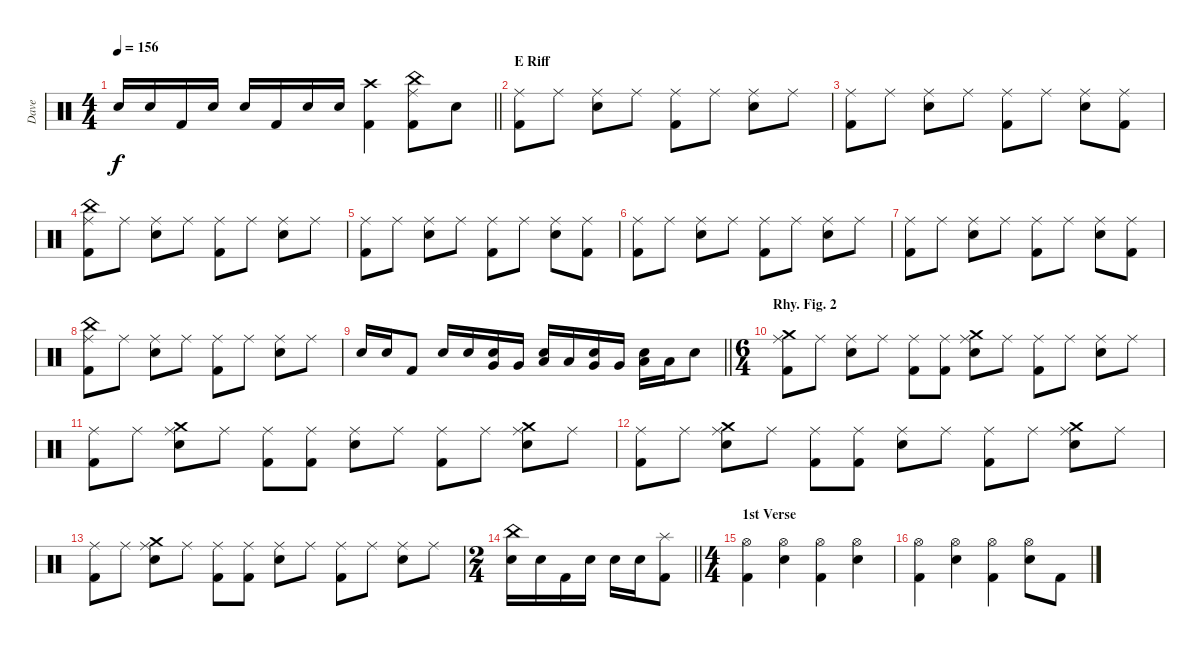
\track ("Dave" "Dave") {instrument percussion}
\staff {score}
\articulation defaults
\ts (4 4)
\tempo 156
\clef neutral
\barLineRight lightlight
\ks c "Electric Snare (hit)".16{dy f} "Electric Snare (hit)".16 "Kick (hit) 2".16 "Electric Snare (hit)".16 "Electric Snare (hit)".16 "Kick (hit) 2".16 "Electric Snare (hit)".16 "Electric Snare (hit)".16
("Crash high (hit)" "Kick (hit) 2").4 ("Ride (middle)" "China (hit)" "Kick (hit) 2").8 "Electric Snare (hit)".8 |
\section ("" "E Riff")
("Ride (middle)" "Kick (hit) 2").8 "Ride (middle)".8 ("Ride (middle)" "Electric Snare (hit)").8 "Ride (middle)".8 ("Ride (middle)" "Kick (hit) 2").8 "Ride (middle)".8 ("Ride (middle)" "Electric Snare (hit)").8 "Ride (middle)".8 |
("Ride (middle)" "Kick (hit) 2").8 "Ride (middle)".8 ("Electric Snare (hit)" "Ride (middle)").8 "Ride (middle)".8 ("Kick (hit) 2" "Ride (middle)").8 "Ride (middle)".8 ("Ride (middle)" "Electric Snare (hit)").8 ("Ride (middle)" "Kick (hit) 2").8 |
("China (hit)" "Kick (hit) 2" "Ride (middle)").8 "Ride (middle)".8 ("Ride (middle)" "Electric Snare (hit)").8 "Ride (middle)".8 ("Ride (middle)" "Kick (hit) 2").8 "Ride (middle)".8 ("Ride (middle)" "Electric Snare (hit)").8 "Ride (middle)".8 |
("Ride (middle)" "Kick (hit) 2").8 "Ride (middle)".8 ("Electric Snare (hit)" "Ride (middle)").8 "Ride (middle)".8 ("Kick (hit) 2" "Ride (middle)").8 "Ride (middle)".8 ("Ride (middle)" "Electric Snare (hit)").8 ("Ride (middle)" "Kick (hit) 2").8 |
("Kick (hit) 2" "Ride (middle)").8 "Ride (middle)".8 ("Ride (middle)" "Electric Snare (hit)").8 "Ride (middle)".8 ("Ride (middle)" "Kick (hit) 2").8 "Ride (middle)".8 ("Ride (middle)" "Electric Snare (hit)").8 "Ride (middle)".8 |
("Ride (middle)" "Kick (hit) 2").8 "Ride (middle)".8 ("Electric Snare (hit)" "Ride (middle)").8 "Ride (middle)".8 ("Kick (hit) 2" "Ride (middle)").8 "Ride (middle)".8 ("Ride (middle)" "Electric Snare (hit)").8 ("Ride (middle)" "Kick (hit) 2").8 |
("Ride (middle)" "Kick (hit) 2" "China (hit)").8 "Ride (middle)".8 ("Ride (middle)" "Electric Snare (hit)").8 "Ride (middle)".8 ("Ride (middle)" "Kick (hit) 2").8 "Ride (middle)".8 ("Ride (middle)" "Electric Snare (hit)").8 "Ride (middle)".8 |
\barLineRight lightlight "Electric Snare (hit)".16 "Electric Snare (hit)".16 "Kick (hit) 2".8 "Electric Snare (hit)".16 "Electric Snare (hit)".16
("Very Low Tom (hit)" "Electric Snare (hit)").16 "Very Low Tom (hit)".16 ("Low Tom (hit)" "Electric Snare (hit)").16 "Low Tom (hit)".16 ("Very Low Tom (hit)" "Electric Snare (hit)").16 "Very Low Tom (hit)".16 ("Low Floor Tom (hit)" "Electric Snare (hit)").16 "Low Floor Tom (hit)".16 "Electric Snare (hit)".8 |
\ts (6 4)
\section ("" "Rhy. Fig. 2")
("Crash medium (hit)" "Ride (middle)" "Kick (hit) 2").8 "Ride (middle)".8 ("Ride (middle)" "Electric Snare (hit)").8 "Ride (middle)".8 ("Ride (middle)" "Kick (hit) 2").8 ("Ride (middle)" "Kick (hit) 2").8 ("Ride (middle)" "Electric Snare (hit)" "Crash medium (hit)").8 "Ride (middle)".8 ("Ride (middle)" "Kick (hit) 2").8 "Ride (middle)".8 ("Ride (middle)" "Electric Snare (hit)").8 "Ride (middle)".8 |
("Kick (hit) 2" "Ride (middle)").8 "Ride (middle)".8 ("Crash medium (hit)" "Electric Snare (hit)" "Ride (middle)").8 "Ride (middle)".8 ("Kick (hit) 2" "Ride (middle)").8 ("Kick (hit) 2" "Ride (middle)").8 ("Electric Snare (hit)" "Ride (middle)").8 "Ride (middle)".8 ("Kick (hit) 2" "Ride (middle)").8 "Ride (middle)".8 ("Electric Snare (hit)" "Ride (middle)" "Crash medium (hit)").8 "Ride (middle)".8 |
("Ride (middle)" "Kick (hit) 2").8 "Ride (middle)".8 ("Crash medium (hit)" "Electric Snare (hit)" "Ride (middle)").8 "Ride (middle)".8 ("Kick (hit) 2" "Ride (middle)").8 ("Kick (hit) 2" "Ride (middle)").8 ("Electric Snare (hit)" "Ride (middle)").8 "Ride (middle)".8 ("Kick (hit) 2" "Ride (middle)").8 "Ride (middle)".8 ("Electric Snare (hit)" "Ride (middle)" "Crash medium (hit)").8 "Ride (middle)".8 |
("Ride (middle)" "Kick (hit) 2").8 "Ride (middle)".8 ("Crash medium (hit)" "Electric Snare (hit)" "Ride (middle)").8 "Ride (middle)".8 ("Kick (hit) 2" "Ride (middle)").8 ("Kick (hit) 2" "Ride (middle)").8 ("Electric Snare (hit)" "Ride (middle)").8 "Ride (middle)".8 ("Kick (hit) 2" "Ride (middle)").8 "Ride (middle)".8 ("Electric Snare (hit)" "Ride (middle)").8 "Ride (middle)".8 |
\ts (2 4)
\barLineRight lightlight
("China (hit)" "Electric Snare (hit)").16 "Electric Snare (hit)".16 "Kick (hit) 2".16 "Electric Snare (hit)".16 "Electric Snare (hit)".16 "Electric Snare (hit)".16 ("Kick (hit) 2" "Splash (hit)").8 |
\ts (4 4)
\section ("" "1st Verse")
("Hi-Hat (open)" "Kick (hit) 2").4 ("Hi-Hat (open)" "Electric Snare (hit)").4 ("Hi-Hat (open)" "Kick (hit) 2").4 ("Hi-Hat (open)" "Electric Snare (hit)").4 |
("Kick (hit) 2" "Hi-Hat (open)").4 ("Hi-Hat (open)" "Electric Snare (hit)").4 ("Hi-Hat (open)" "Kick (hit) 2").4 ("Hi-Hat (open)" "Electric Snare (hit)").8 "Kick (hit) 2".8
